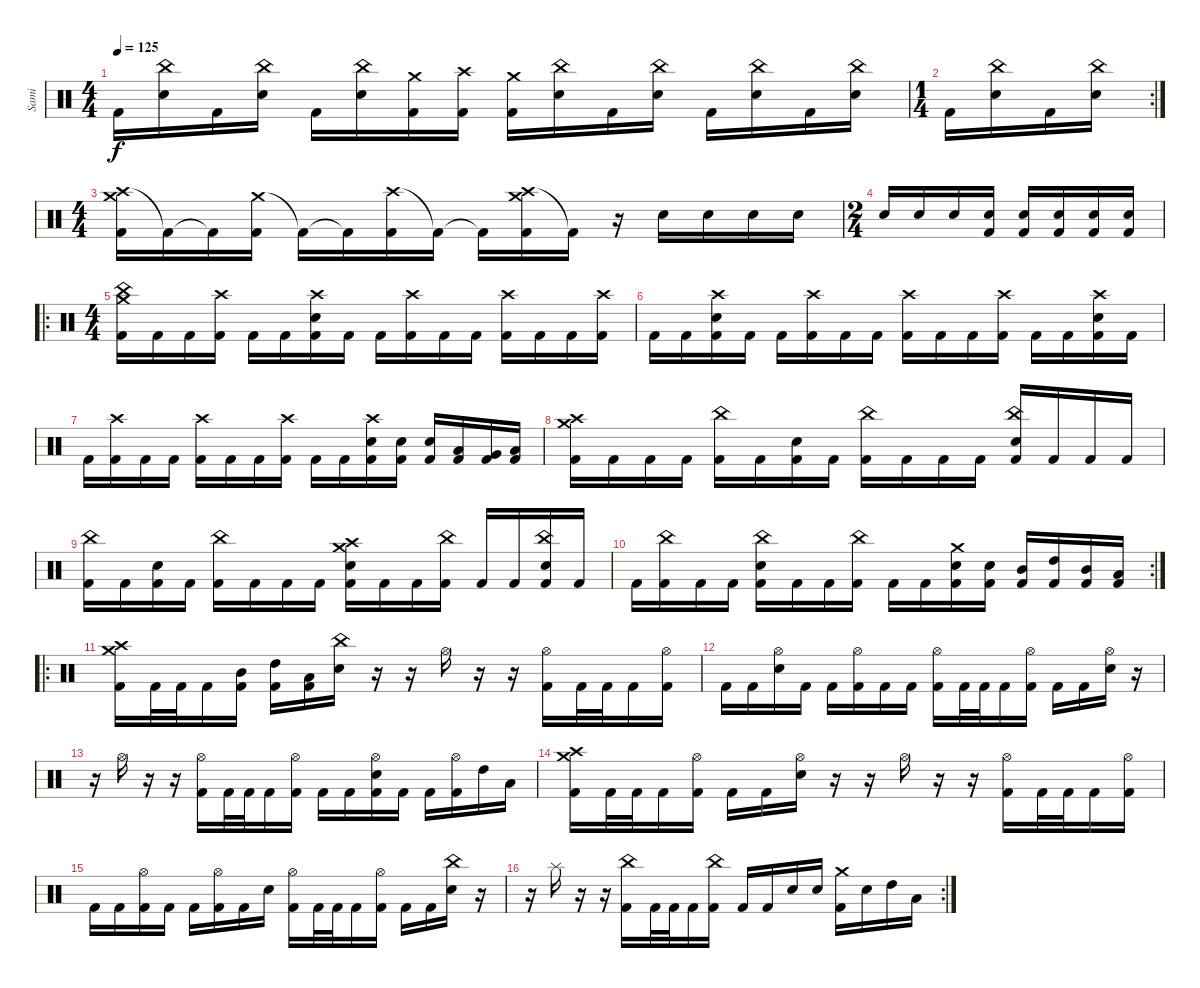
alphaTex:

\track ("Sami" "Sami") {instrument percussion}
\staff {score}
\articulation defaults
\ts (4 4)
\tempo 125
\clef neutral
\ks c "Kick (hit) 2".16{dy f}
("China (hit)" "Snare (hit) 2").16 "Kick (hit) 2".16 ("China (hit)" "Snare (hit) 2").16 "Kick (hit) 2".16 ("China (hit)" "Snare (hit) 2").16 ("Crash medium (hit)" "Kick (hit) 2").16 ("Crash high (hit)" "Kick (hit) 2").16 ("Crash medium (hit)" "Kick (hit) 2").16 ("China (hit)" "Snare (hit) 2").16 "Kick (hit) 2".16 ("China (hit)" "Snare (hit) 2").16 "Kick (hit) 2".16 ("China (hit)" "Snare (hit) 2").16 "Kick (hit) 2".16 ("China (hit)" "Snare (hit) 2").16 |
\rc 2
\ts (1 4)
"Kick (hit) 2".16 ("China (hit)" "Snare (hit) 2").16 "Kick (hit) 2".16 ("China (hit)" "Snare (hit) 2").16 |
\ts (4 4)
("Crash high (hit)" "Crash medium (hit)" "Kick (hit) 2").16 "Kick (hit) 2"{t}.16 "Kick (hit) 2"{t}.16 ("Crash medium (hit)" "Kick (hit) 2").16 "Kick (hit) 2"{t}.16 "Kick (hit) 2"{t}.16 ("Crash high (hit)" "Kick (hit) 2").16 "Kick (hit) 2"{t}.16 "Kick (hit) 2"{t}.16 ("Crash high (hit)" "Crash medium (hit)" "Kick (hit) 2").16 "Kick (hit) 2"{t}.16 r.16 "Snare (hit) 2".16 "Snare (hit) 2".16 "Snare (hit) 2".16 "Snare (hit) 2".16 |
\ts (2 4)
"Snare (hit) 2".16 "Snare (hit) 2".16 "Snare (hit) 2".16 ("Snare (hit) 2" "Kick (hit) 2").16 ("Snare (hit) 2" "Kick (hit) 2").16 ("Snare (hit) 2" "Kick (hit) 2").16 ("Snare (hit) 2" "Kick (hit) 2").16 ("Snare (hit) 2" "Kick (hit) 2").16 |
\ro
\ts (4 4)
("Crash medium (hit)" "China (hit)" "Kick (hit) 2").16 "Kick (hit) 2".16 "Kick (hit) 2".16 ("Crash high (hit)" "Kick (hit) 2").16 "Kick (hit) 2".16 "Kick (hit) 2".16 ("Crash high (hit)" "Snare (hit) 2" "Kick (hit) 2").16 "Kick (hit) 2".16 "Kick (hit) 2".16 ("Crash high (hit)" "Kick (hit) 2").16 "Kick (hit) 2".16 "Kick (hit) 2".16 ("Crash high (hit)" "Kick (hit) 2").16 "Kick (hit) 2".16 "Kick (hit) 2".16 ("Crash high (hit)" "Kick (hit) 2").16 |
"Kick (hit) 2".16 "Kick (hit) 2".16 ("Crash high (hit)" "Snare (hit) 2" "Kick (hit) 2").16 "Kick (hit) 2".16 "Kick (hit) 2".16 ("Crash high (hit)" "Kick (hit) 2").16 "Kick (hit) 2".16 "Kick (hit) 2".16 ("Crash high (hit)" "Kick (hit) 2").16 "Kick (hit) 2".16 "Kick (hit) 2".16 ("Crash high (hit)" "Kick (hit) 2").16 "Kick (hit) 2".16 "Kick (hit) 2".16 ("Crash high (hit)" "Snare (hit) 2" "Kick (hit) 2").16 "Kick (hit) 2".16 |
"Kick (hit) 2".16 ("Crash high (hit)" "Kick (hit) 2").16 "Kick (hit) 2".16 "Kick (hit) 2".16 ("Crash high (hit)" "Kick (hit) 2").16 "Kick (hit) 2".16 "Kick (hit) 2".16 ("Crash high (hit)" "Kick (hit) 2").16 "Kick (hit) 2".16 "Kick (hit) 2".16 ("Crash high (hit)" "Snare (hit) 2" "Kick (hit) 2").16 ("Snare (hit) 2" "Kick (hit) 2").16 ("Snare (hit) 2" "Kick (hit) 2").16 ("Low Tom (hit)" "Kick (hit) 2").16 ("Very Low Tom (hit)" "Kick (hit) 2").16 ("Low Floor Tom (hit)" "Kick (hit) 2").16 |
("Crash medium (hit)" "Crash high (hit)" "Kick (hit) 2").16 "Kick (hit) 2".16 "Kick (hit) 2".16 "Kick (hit) 2".16 ("China (hit)" "Kick (hit) 2").16 "Kick (hit) 2".16 ("Snare (hit) 2" "Kick (hit) 2").16 "Kick (hit) 2".16 ("China (hit)" "Kick (hit) 2").16 "Kick (hit) 2".16 "Kick (hit) 2".16 "Kick (hit) 2".16 ("China (hit)" "Snare (hit) 2" "Kick (hit) 2").16 "Kick (hit) 2".16 "Kick (hit) 2".16 "Kick (hit) 2".16 |
("China (hit)" "Kick (hit) 2").16 "Kick (hit) 2".16 ("Snare (hit) 2" "Kick (hit) 2").16 "Kick (hit) 2".16 ("China (hit)" "Kick (hit) 2").16 "Kick (hit) 2".16 "Kick (hit) 2".16 "Kick (hit) 2".16 ("Crash medium (hit)" "Crash high (hit)" "Snare (hit) 2" "Kick (hit) 2").16 "Kick (hit) 2".16 "Kick (hit) 2".16 ("China (hit)" "Kick (hit) 2").16 "Kick (hit) 2".16 "Kick (hit) 2".16 ("China (hit)" "Snare (hit) 2" "Kick (hit) 2").16 "Kick (hit) 2".16 |
\rc 2 "Kick (hit) 2".16
("China (hit)" "Kick (hit) 2").16 "Kick (hit) 2".16 "Kick (hit) 2".16 ("China (hit)" "Snare (hit) 2" "Kick (hit) 2").16 "Kick (hit) 2".16 "Kick (hit) 2".16 ("China (hit)" "Kick (hit) 2").16 "Kick (hit) 2".16 "Kick (hit) 2".16 ("Crash medium (hit)" "Snare (hit) 2" "Kick (hit) 2").16 ("Snare (hit) 2" "Kick (hit) 2").16 ("Mid Tom (hit)" "Kick (hit) 2").16 ("High Tom (hit)" "Kick (hit) 2").16 ("Mid Tom (hit)" "Kick (hit) 2").16 ("Low Tom (hit)" "Kick (hit) 2").16 |
\ro
("Crash medium (hit)" "Crash high (hit)" "Kick (hit) 2").16 "Kick (hit) 2".32 "Kick (hit) 2".32 "Kick (hit) 2".16 ("Mid Tom (hit)" "Kick (hit) 2").16 ("High Tom (hit)" "Kick (hit) 2").16 ("Low Tom (hit)" "Kick (hit) 2").16 ("China (hit)" "Snare (hit) 2").16 r.16 r.16 "Hi-Hat (open)".16 r.16 r.16 ("Hi-Hat (open)" "Kick (hit) 2").16 "Kick (hit) 2".32 "Kick (hit) 2".32 "Kick (hit) 2".16 ("Hi-Hat (open)" "Kick (hit) 2").16 |
"Kick (hit) 2".16 "Kick (hit) 2".16 ("Hi-Hat (open)" "Snare (hit) 2").16 "Kick (hit) 2".16 "Kick (hit) 2".16 ("Hi-Hat (open)" "Kick (hit) 2").16 "Kick (hit) 2".16 "Kick (hit) 2".16 ("Hi-Hat (open)" "Kick (hit) 2").16 "Kick (hit) 2".32 "Kick (hit) 2".32 "Kick (hit) 2".16 ("Hi-Hat (open)" "Kick (hit) 2").16 "Kick (hit) 2".16 "Kick (hit) 2".16 ("Hi-Hat (open)" "Snare (hit) 2").16 r.16 |
r.16 "Hi-Hat (open)".16 r.16 r.16 ("Hi-Hat (open)" "Kick (hit) 2").16 "Kick (hit) 2".32 "Kick (hit) 2".32 "Kick (hit) 2".16 ("Hi-Hat (open)" "Kick (hit) 2").16 "Kick (hit) 2".16 "Kick (hit) 2".16 ("Hi-Hat (open)" "Snare (hit) 2" "Kick (hit) 2").16 "Kick (hit) 2".16 "Kick (hit) 2".16 ("Hi-Hat (open)" "Kick (hit) 2").16 "High Tom (hit)".16 "Low Tom (hit)".16 |
("Crash medium (hit)" "Crash high (hit)" "Kick (hit) 2").16 "Kick (hit) 2".32 "Kick (hit) 2".32 "Kick (hit) 2".16 ("Hi-Hat (open)" "Kick (hit) 2").16 "Kick (hit) 2".16 "Kick (hit) 2".16 ("Hi-Hat (open)" "Snare (hit) 2").16 r.16 r.16 "Hi-Hat (open)".16 r.16 r.16 ("Hi-Hat (open)" "Kick (hit) 2").16 "Kick (hit) 2".32 "Kick (hit) 2".32 "Kick (hit) 2".16 ("Hi-Hat (open)" "Kick (hit) 2").16 |
"Kick (hit) 2".16 "Kick (hit) 2".16 ("Hi-Hat (open)" "Kick (hit) 2").16 "Kick (hit) 2".16 "Kick (hit) 2".16 ("Hi-Hat (open)" "Kick (hit) 2").16 "Kick (hit) 2".16 "Snare (hit) 2".16 ("Hi-Hat (open)" "Kick (hit) 2").16 "Kick (hit) 2".32 "Kick (hit) 2".32 "Kick (hit) 2".16 ("Hi-Hat (open)" "Kick (hit) 2").16 "Kick (hit) 2".16 "Kick (hit) 2".16 ("China (hit)" "Snare (hit) 2").16 r.16 |
\rc 2
r.16 "Splash (hit)".16 r.16 r.16 ("China (hit)" "Kick (hit) 2").16 "Kick (hit) 2".32 "Kick (hit) 2".32 "Kick (hit) 2".16 ("China (hit)" "Kick (hit) 2").16 "Kick (hit) 2".16 "Kick (hit) 2".16 "Snare (hit) 2".16 "Snare (hit) 2".16 ("Crash medium (hit)" "Kick (hit) 2").16 "Snare (hit) 2".16 "High Tom (hit)".16 "Low Tom (hit)".16
